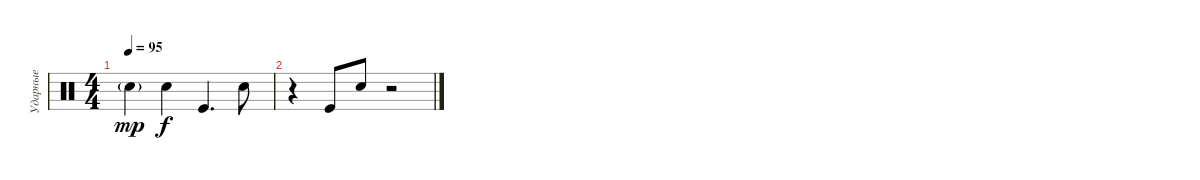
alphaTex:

\track ("Ударные" "Ударные") {instrument percussion}
\staff {score}
\articulation defaults
\ts (4 4)
\tempo 95
\clef neutral
\ks c "Hand Clap (hit)"{g}.4{dy mp} "Hand Clap (hit)".4{dy f} "Kick (hit)".4{d} "Hand Clap (hit)".8
|
r.4 "Kick (hit)".8 "Hand Clap (hit)".8 r.2
